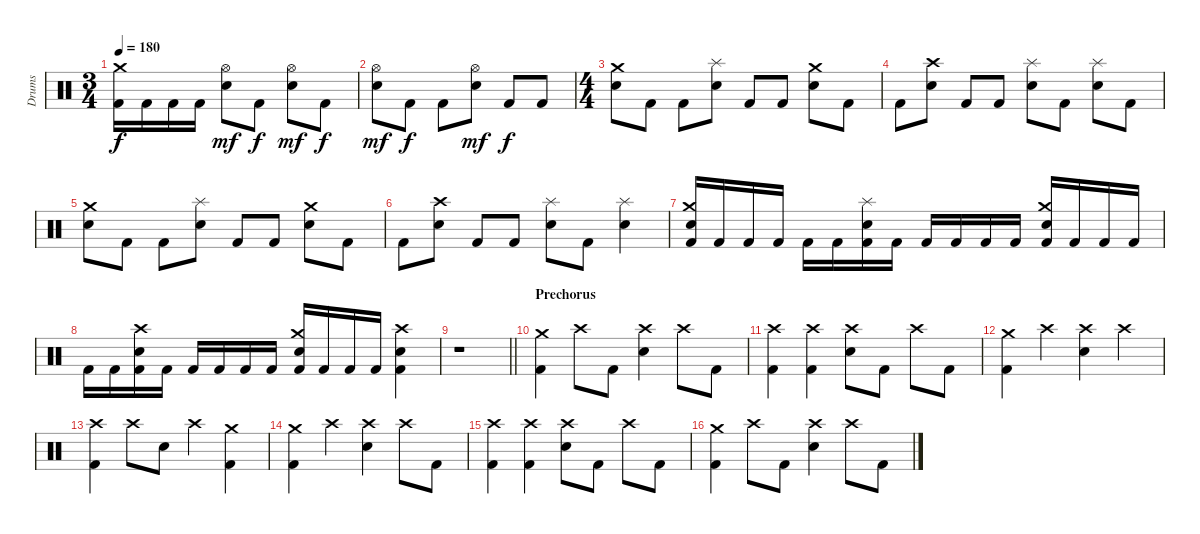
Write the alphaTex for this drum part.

\track ("Drums" "Drums") {instrument percussion}
\staff {score}
\articulation defaults
\ts (3 4)
\tempo 180
\clef neutral
\ks c
("Kick (hit) 2" "Crash medium (hit)").16{dy f} "Kick (hit) 2".16 "Kick (hit) 2".16 "Kick (hit) 2".16 ("Hi-Hat (open)" "Electric Snare (hit)").8{dy mf} "Kick (hit) 2".8{dy f} ("Hi-Hat (open)" "Electric Snare (hit)").8{dy mf} "Kick (hit) 2".8{dy f} |
("Hi-Hat (open)" "Electric Snare (hit)").8{dy mf} "Kick (hit) 2".8{dy f} "Kick (hit) 2".8 ("Hi-Hat (open)" "Electric Snare (hit)").8{dy mf} "Kick (hit) 2".8{dy f} "Kick (hit) 2".8 |
\ts (4 4)
("Crash medium (hit)" "Electric Snare (hit)").8 "Kick (hit) 2".8 "Kick (hit) 2".8 ("Splash (hit)" "Electric Snare (hit)").8 "Kick (hit) 2".8 "Kick (hit) 2".8 ("Crash medium (hit)" "Electric Snare (hit)").8 "Kick (hit) 2".8 |
"Kick (hit) 2".8 ("Crash high (hit)" "Electric Snare (hit)").8 "Kick (hit) 2".8 "Kick (hit) 2".8 ("Splash (hit)" "Electric Snare (hit)").8 "Kick (hit) 2".8 ("Splash (hit)" "Electric Snare (hit)").8 "Kick (hit) 2".8 |
("Crash medium (hit)" "Electric Snare (hit)").8 "Kick (hit) 2".8 "Kick (hit) 2".8 ("Splash (hit)" "Electric Snare (hit)").8 "Kick (hit) 2".8 "Kick (hit) 2".8 ("Crash medium (hit)" "Electric Snare (hit)").8 "Kick (hit) 2".8 |
"Kick (hit) 2".8 ("Crash high (hit)" "Electric Snare (hit)").8 "Kick (hit) 2".8 "Kick (hit) 2".8 ("Splash (hit)" "Electric Snare (hit)").8 "Kick (hit) 2".8 ("Splash (hit)" "Electric Snare (hit)").4 |
("Kick (hit) 2" "Crash medium (hit)" "Electric Snare (hit)").16 "Kick (hit) 2".16 "Kick (hit) 2".16 "Kick (hit) 2".16 "Kick (hit) 2".16 "Kick (hit) 2".16 ("Kick (hit) 2" "Splash (hit)" "Electric Snare (hit)").16 "Kick (hit) 2".16 "Kick (hit) 2".16 "Kick (hit) 2".16 "Kick (hit) 2".16 "Kick (hit) 2".16 ("Kick (hit) 2" "Crash medium (hit)" "Electric Snare (hit)").16 "Kick (hit) 2".16 "Kick (hit) 2".16 "Kick (hit) 2".16 |
"Kick (hit) 2".16 "Kick (hit) 2".16 ("Kick (hit) 2" "Crash high (hit)" "Electric Snare (hit)").16 "Kick (hit) 2".16 "Kick (hit) 2".16 "Kick (hit) 2".16 "Kick (hit) 2".16 "Kick (hit) 2".16 ("Kick (hit) 2" "Crash medium (hit)" "Electric Snare (hit)").16 "Kick (hit) 2".16 "Kick (hit) 2".16 "Kick (hit) 2".16 ("Kick (hit) 2" "Crash high (hit)" "Electric Snare (hit)").4 |
\barLineRight lightlight
r.1 |
\section ("" "Prechorus")
("Kick (hit) 2" "Crash medium (hit)").4 "Crash high (hit)".8 "Kick (hit) 2".8 ("Crash high (hit)" "Electric Snare (hit)").4 "Crash high (hit)".8 "Kick (hit) 2".8 |
("Kick (hit) 2" "Crash high (hit)").4 ("Kick (hit) 2" "Crash high (hit)").4 ("Crash high (hit)" "Electric Snare (hit)").8 "Kick (hit) 2".8 "Crash high (hit)".8 "Kick (hit) 2".8 |
("Kick (hit) 2" "Crash medium (hit)").4 "Crash high (hit)".4 ("Crash high (hit)" "Electric Snare (hit)").4 "Crash high (hit)".4 |
("Kick (hit) 2" "Crash high (hit)").4 "Crash high (hit)".8 "Electric Snare (hit)".8 "Crash high (hit)".4 ("Kick (hit) 2" "Crash medium (hit)").4 |
("Kick (hit) 2" "Crash medium (hit)").4 "Crash high (hit)".4 ("Crash high (hit)" "Electric Snare (hit)").4 "Crash high (hit)".8 "Kick (hit) 2".8 |
("Kick (hit) 2" "Crash high (hit)").4 ("Kick (hit) 2" "Crash high (hit)").4 ("Crash high (hit)" "Electric Snare (hit)").8 "Kick (hit) 2".8 "Crash high (hit)".8 "Kick (hit) 2".8 |
("Kick (hit) 2" "Crash medium (hit)").4 "Crash high (hit)".8 "Kick (hit) 2".8 ("Crash high (hit)" "Electric Snare (hit)").4 "Crash high (hit)".8 "Kick (hit) 2".8
